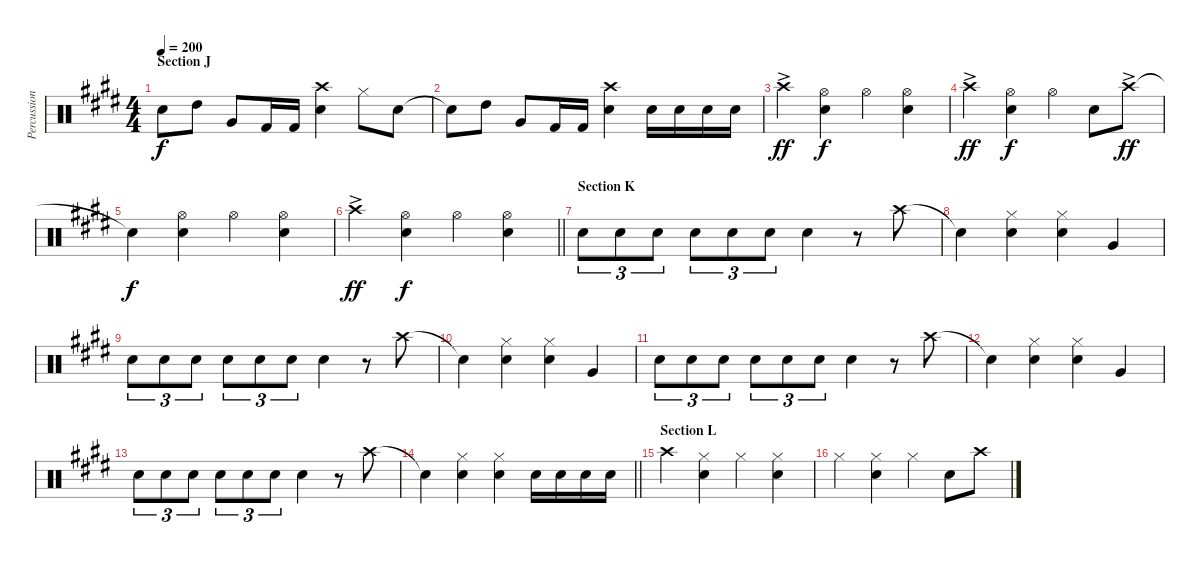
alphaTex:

\track ("Percussion - other" "Percussion") {instrument percussion}
\staff {score}
\articulation defaults
\ts (4 4)
\section ("" "Section J")
\tempo 200
\clef neutral
\ks e "Snare (hit)"{t}.8{dy f} "High Tom (hit)".8 "Very Low Tom (hit)".8 "Kick (hit) 2".16 "Kick (hit) 2".16
("Crash high (hit)" "Snare (hit) 2").4 "Hi-Hat (closed)".8 "Snare (hit) 2".8 |
"Snare (hit)"{t}.8 "High Tom (hit)".8 "Very Low Tom (hit)".8 "Kick (hit) 2".16 "Kick (hit) 2".16 ("Crash high (hit)" "Snare (hit) 2").4 "Snare (hit) 2".16 "Snare (hit) 2".16 "Snare (hit) 2".16 "Snare (hit) 2".16 |
"Crash high (hit)"{ac}.4{dy ff} ("Hi-Hat (open)" "Snare (hit) 2").4{dy f} "Hi-Hat (open)".4 ("Hi-Hat (open)" "Snare (hit) 2").4 |
"Crash high (hit)"{ac}.4{dy ff} ("Hi-Hat (open)" "Snare (hit) 2").4{dy f} "Hi-Hat (open)".4 "Snare (hit) 2".8 "Crash high (hit)"{ac}.8{dy ff} |
"Snare (hit)"{t}.4{dy f} ("Hi-Hat (open)" "Snare (hit) 2").4 "Hi-Hat (open)".4 ("Hi-Hat (open)" "Snare (hit) 2").4 |
\barLineRight lightlight "Crash high (hit)"{ac}.4{dy ff}
("Hi-Hat (open)" "Snare (hit) 2").4{dy f} "Hi-Hat (open)".4 ("Hi-Hat (open)" "Snare (hit) 2").4 |
\section ("" "Section K")
"Snare (hit) 2".8{tu (3 2)} "Snare (hit) 2".8{tu (3 2)} "Snare (hit) 2".8{tu (3 2)} "Snare (hit) 2".8{tu (3 2)} "Snare (hit) 2".8{tu (3 2)} "Snare (hit) 2".8{tu (3 2)} "Snare (hit) 2".4 r.8 "Crash high (hit)".8 |
"Snare (hit)"{t}.4 ("Hi-Hat (closed)" "Snare (hit) 2").4 ("Hi-Hat (closed)" "Snare (hit) 2").4 "Very Low Tom (hit)".4 |
"Snare (hit) 2".8{tu (3 2)} "Snare (hit) 2".8{tu (3 2)} "Snare (hit) 2".8{tu (3 2)} "Snare (hit) 2".8{tu (3 2)} "Snare (hit) 2".8{tu (3 2)} "Snare (hit) 2".8{tu (3 2)} "Snare (hit) 2".4 r.8 "Crash high (hit)".8 |
"Snare (hit)"{t}.4 ("Hi-Hat (closed)" "Snare (hit) 2").4 ("Hi-Hat (closed)" "Snare (hit) 2").4 "Very Low Tom (hit)".4 |
"Snare (hit) 2".8{tu (3 2)} "Snare (hit) 2".8{tu (3 2)} "Snare (hit) 2".8{tu (3 2)} "Snare (hit) 2".8{tu (3 2)} "Snare (hit) 2".8{tu (3 2)} "Snare (hit) 2".8{tu (3 2)} "Snare (hit) 2".4 r.8 "Crash high (hit)".8 |
"Snare (hit)"{t}.4 ("Hi-Hat (closed)" "Snare (hit) 2").4 ("Hi-Hat (closed)" "Snare (hit) 2").4 "Very Low Tom (hit)".4 |
"Snare (hit) 2".8{tu (3 2)} "Snare (hit) 2".8{tu (3 2)} "Snare (hit) 2".8{tu (3 2)} "Snare (hit) 2".8{tu (3 2)} "Snare (hit) 2".8{tu (3 2)} "Snare (hit) 2".8{tu (3 2)} "Snare (hit) 2".4 r.8 "Crash high (hit)".8 |
\barLineRight lightlight "Snare (hit)"{t}.4
("Hi-Hat (closed)" "Snare (hit) 2").4 ("Hi-Hat (closed)" "Snare (hit) 2").4 "Snare (hit) 2".16 "Snare (hit) 2".16 "Snare (hit) 2".16 "Snare (hit) 2".16 |
\section ("" "Section L")
"Crash high (hit)".4 ("Hi-Hat (closed)" "Snare (hit) 2").4 "Hi-Hat (closed)".4 ("Hi-Hat (closed)" "Snare (hit) 2").4 |
"Hi-Hat (closed)".4 ("Hi-Hat (closed)" "Snare (hit) 2").4 "Hi-Hat (closed)".4 "Snare (hit) 2".8 "Crash high (hit)".8
